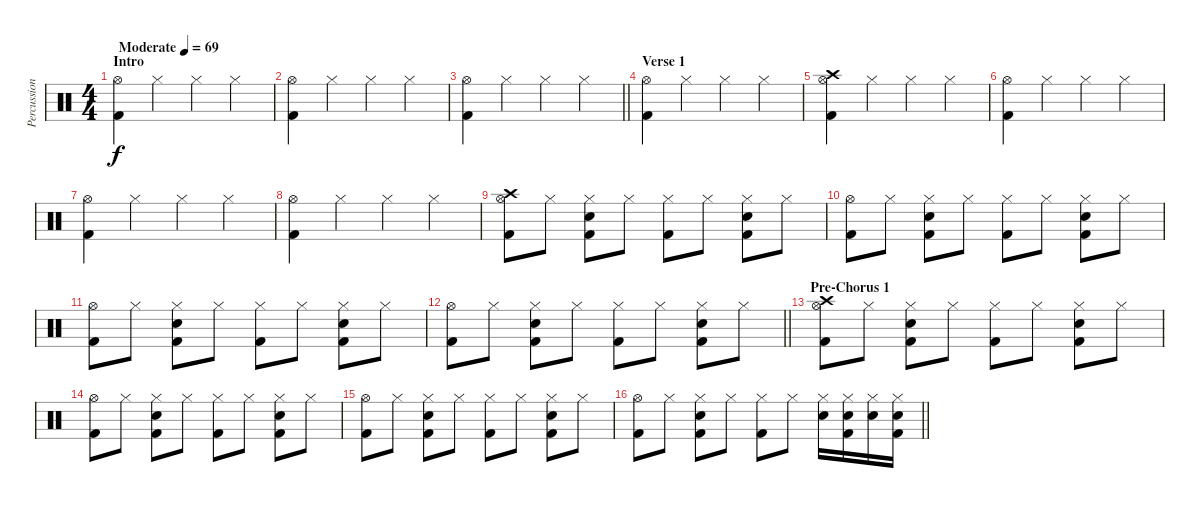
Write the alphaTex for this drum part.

\track ("Percussion: Mark Williams" "Percussion") {instrument percussion}
\staff {score}
\articulation defaults
\ts (4 4)
\section ("" "Intro")
\tempo (69 "Moderate")
\clef neutral
\ks c
("Hi-Hat (open)" "Kick (hit) 2").4{dy f} "Hi-Hat (closed)".4 "Hi-Hat (closed)".4 "Hi-Hat (closed)".4 |
("Hi-Hat (open)" "Kick (hit) 2").4 "Hi-Hat (closed)".4 "Hi-Hat (closed)".4 "Hi-Hat (closed)".4 |
\barLineRight lightlight
("Hi-Hat (open)" "Kick (hit) 2").4 "Hi-Hat (closed)".4 "Hi-Hat (closed)".4 "Hi-Hat (closed)".4 |
\section ("" "Verse 1")
("Hi-Hat (open)" "Kick (hit) 2").4 "Hi-Hat (closed)".4 "Hi-Hat (closed)".4 "Hi-Hat (closed)".4 |
("Crash high (hit)" "Hi-Hat (open)" "Kick (hit) 2").4 "Hi-Hat (closed)".4 "Hi-Hat (closed)".4 "Hi-Hat (closed)".4 |
("Hi-Hat (open)" "Kick (hit) 2").4 "Hi-Hat (closed)".4 "Hi-Hat (closed)".4 "Hi-Hat (closed)".4 |
("Hi-Hat (open)" "Kick (hit) 2").4 "Hi-Hat (closed)".4 "Hi-Hat (closed)".4 "Hi-Hat (closed)".4 |
("Hi-Hat (open)" "Kick (hit) 2").4 "Hi-Hat (closed)".4 "Hi-Hat (closed)".4 "Hi-Hat (closed)".4 |
("Crash high (hit)" "Hi-Hat (open)" "Kick (hit) 2").8 "Hi-Hat (closed)".8 ("Hi-Hat (closed)" "Snare (hit) 2" "Kick (hit) 2").8 "Hi-Hat (closed)".8 ("Hi-Hat (closed)" "Kick (hit) 2").8 "Hi-Hat (closed)".8 ("Hi-Hat (closed)" "Snare (hit) 2" "Kick (hit) 2").8 "Hi-Hat (closed)".8 |
("Hi-Hat (open)" "Kick (hit) 2").8 "Hi-Hat (closed)".8 ("Hi-Hat (closed)" "Snare (hit) 2" "Kick (hit) 2").8 "Hi-Hat (closed)".8 ("Hi-Hat (closed)" "Kick (hit) 2").8 "Hi-Hat (closed)".8 ("Hi-Hat (closed)" "Snare (hit) 2" "Kick (hit) 2").8 "Hi-Hat (closed)".8 |
("Hi-Hat (open)" "Kick (hit) 2").8 "Hi-Hat (closed)".8 ("Hi-Hat (closed)" "Snare (hit) 2" "Kick (hit) 2").8 "Hi-Hat (closed)".8 ("Hi-Hat (closed)" "Kick (hit) 2").8 "Hi-Hat (closed)".8 ("Hi-Hat (closed)" "Snare (hit) 2" "Kick (hit) 2").8 "Hi-Hat (closed)".8 |
\barLineRight lightlight
("Hi-Hat (open)" "Kick (hit) 2").8 "Hi-Hat (closed)".8 ("Hi-Hat (closed)" "Snare (hit) 2" "Kick (hit) 2").8 "Hi-Hat (closed)".8 ("Hi-Hat (closed)" "Kick (hit) 2").8 "Hi-Hat (closed)".8 ("Hi-Hat (closed)" "Snare (hit) 2" "Kick (hit) 2").8 "Hi-Hat (closed)".8 |
\section ("" "Pre-Chorus 1")
("Crash high (hit)" "Hi-Hat (open)" "Kick (hit) 2").8 "Hi-Hat (closed)".8 ("Hi-Hat (closed)" "Snare (hit) 2" "Kick (hit) 2").8 "Hi-Hat (closed)".8 ("Hi-Hat (closed)" "Kick (hit) 2").8 "Hi-Hat (closed)".8 ("Hi-Hat (closed)" "Snare (hit) 2" "Kick (hit) 2").8 "Hi-Hat (closed)".8 |
("Hi-Hat (open)" "Kick (hit) 2").8 "Hi-Hat (closed)".8 ("Hi-Hat (closed)" "Snare (hit) 2" "Kick (hit) 2").8 "Hi-Hat (closed)".8 ("Hi-Hat (closed)" "Kick (hit) 2").8 "Hi-Hat (closed)".8 ("Hi-Hat (closed)" "Snare (hit) 2" "Kick (hit) 2").8 "Hi-Hat (closed)".8 |
("Hi-Hat (open)" "Kick (hit) 2").8 "Hi-Hat (closed)".8 ("Hi-Hat (closed)" "Snare (hit) 2" "Kick (hit) 2").8 "Hi-Hat (closed)".8 ("Hi-Hat (closed)" "Kick (hit) 2").8 "Hi-Hat (closed)".8 ("Hi-Hat (closed)" "Snare (hit) 2" "Kick (hit) 2").8 "Hi-Hat (closed)".8 |
\barLineRight lightlight
("Hi-Hat (open)" "Kick (hit) 2").8 "Hi-Hat (closed)".8 ("Hi-Hat (closed)" "Snare (hit) 2" "Kick (hit) 2").8 "Hi-Hat (closed)".8 ("Hi-Hat (closed)" "Kick (hit) 2").8 "Hi-Hat (closed)".8 ("Hi-Hat (closed)" "Snare (hit) 2").16 ("Hi-Hat (closed)" "Snare (hit) 2" "Kick (hit) 2").16 ("Hi-Hat (closed)" "Snare (hit) 2").16 ("Hi-Hat (closed)" "Snare (hit) 2" "Kick (hit) 2").16
